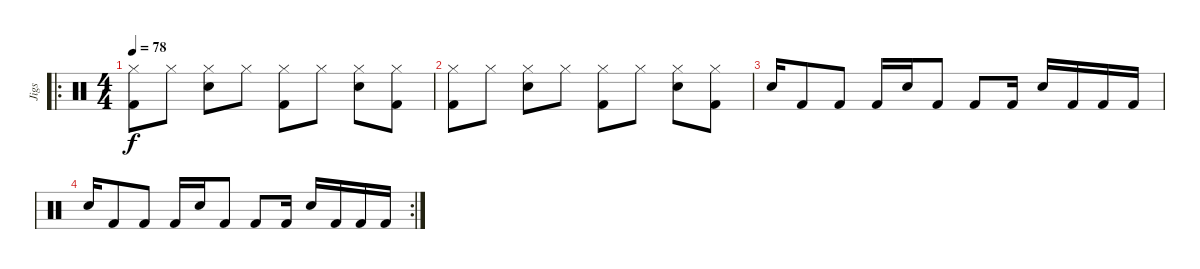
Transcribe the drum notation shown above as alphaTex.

\track ("Jigs" "Jigs") {instrument percussion}
\staff {score}
\articulation defaults
\ro
\ts (4 4)
\tempo 78
\clef neutral
\ks c
("Kick (hit) 2" "Hi-Hat (closed)").8{dy f} "Hi-Hat (closed)".8 ("Snare (hit) 2" "Hi-Hat (closed)").8 "Hi-Hat (closed)".8 ("Kick (hit) 2" "Hi-Hat (closed)").8 "Hi-Hat (closed)".8 ("Snare (hit) 2" "Hi-Hat (closed)").8 ("Kick (hit) 2" "Hi-Hat (closed)").8 |
("Kick (hit) 2" "Hi-Hat (closed)").8 "Hi-Hat (closed)".8 ("Snare (hit) 2" "Hi-Hat (closed)").8 "Hi-Hat (closed)".8 ("Kick (hit) 2" "Hi-Hat (closed)").8 "Hi-Hat (closed)".8 ("Snare (hit) 2" "Hi-Hat (closed)").8 ("Kick (hit) 2" "Hi-Hat (closed)").8 |
"Snare (hit) 2".16 "Kick (hit) 2".8 "Kick (hit) 2".8 "Kick (hit) 2".16 "Snare (hit) 2".16 "Kick (hit) 2".8 "Kick (hit) 2".8 "Kick (hit) 2".16 "Snare (hit) 2".16 "Kick (hit) 2".16 "Kick (hit) 2".16 "Kick (hit) 2".16 |
\rc 2 "Snare (hit) 2".16 "Kick (hit) 2".8 "Kick (hit) 2".8 "Kick (hit) 2".16 "Snare (hit) 2".16 "Kick (hit) 2".8 "Kick (hit) 2".8 "Kick (hit) 2".16 "Snare (hit) 2".16 "Kick (hit) 2".16 "Kick (hit) 2".16 "Kick (hit) 2".16
